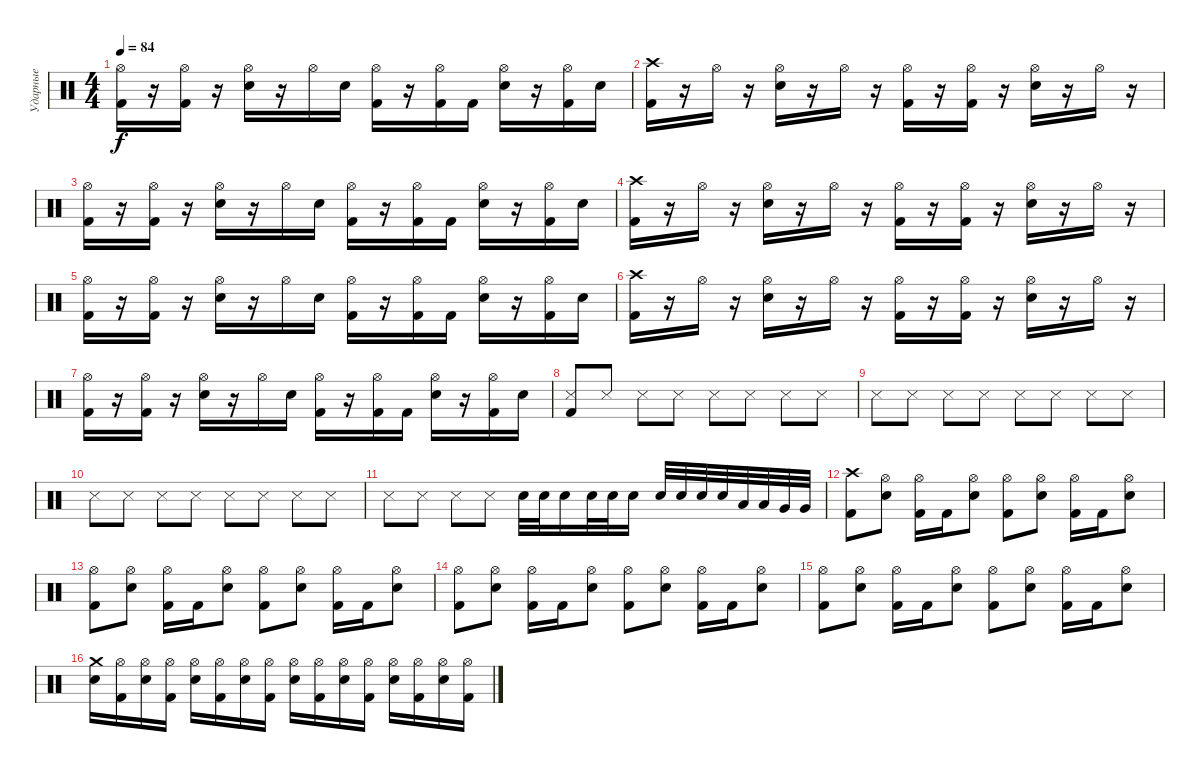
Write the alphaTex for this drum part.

\track ("Ударные" "Ударные") {instrument percussion}
\staff {score}
\articulation defaults
\ts (4 4)
\tempo 84
\clef neutral
\ks c
("Hi-Hat (open)" "Kick (hit) 2").16{dy f} r.16 ("Hi-Hat (open)" "Kick (hit) 2").16 r.16 ("Hi-Hat (open)" "Snare (hit) 2").16 r.16 "Hi-Hat (open)".16 "Snare (hit) 2".16 ("Hi-Hat (open)" "Kick (hit) 2").16 r.16 ("Hi-Hat (open)" "Kick (hit) 2").16 "Kick (hit) 2".16 ("Hi-Hat (open)" "Snare (hit) 2").16 r.16 ("Hi-Hat (open)" "Kick (hit) 2").16 "Snare (hit) 2".16 |
("Crash high (hit)" "Kick (hit) 2").16 r.16 "Hi-Hat (open)".16 r.16 ("Hi-Hat (open)" "Snare (hit) 2").16 r.16 "Hi-Hat (open)".16 r.16 ("Hi-Hat (open)" "Kick (hit) 2").16 r.16 ("Hi-Hat (open)" "Kick (hit) 2").16 r.16 ("Hi-Hat (open)" "Snare (hit) 2").16 r.16 "Hi-Hat (open)".16 r.16 |
("Hi-Hat (open)" "Kick (hit) 2").16 r.16 ("Hi-Hat (open)" "Kick (hit) 2").16 r.16 ("Hi-Hat (open)" "Snare (hit) 2").16 r.16 "Hi-Hat (open)".16 "Snare (hit) 2".16 ("Hi-Hat (open)" "Kick (hit) 2").16 r.16 ("Hi-Hat (open)" "Kick (hit) 2").16 "Kick (hit) 2".16 ("Hi-Hat (open)" "Snare (hit) 2").16 r.16 ("Hi-Hat (open)" "Kick (hit) 2").16 "Snare (hit) 2".16 |
("Crash high (hit)" "Kick (hit) 2").16 r.16 "Hi-Hat (open)".16 r.16 ("Hi-Hat (open)" "Snare (hit) 2").16 r.16 "Hi-Hat (open)".16 r.16 ("Hi-Hat (open)" "Kick (hit) 2").16 r.16 ("Hi-Hat (open)" "Kick (hit) 2").16 r.16 ("Hi-Hat (open)" "Snare (hit) 2").16 r.16 "Hi-Hat (open)".16 r.16 |
("Hi-Hat (open)" "Kick (hit) 2").16 r.16 ("Hi-Hat (open)" "Kick (hit) 2").16 r.16 ("Hi-Hat (open)" "Snare (hit) 2").16 r.16 "Hi-Hat (open)".16 "Snare (hit) 2".16 ("Hi-Hat (open)" "Kick (hit) 2").16 r.16 ("Hi-Hat (open)" "Kick (hit) 2").16 "Kick (hit) 2".16 ("Hi-Hat (open)" "Snare (hit) 2").16 r.16 ("Hi-Hat (open)" "Kick (hit) 2").16 "Snare (hit) 2".16 |
("Crash high (hit)" "Kick (hit) 2").16 r.16 "Hi-Hat (open)".16 r.16 ("Hi-Hat (open)" "Snare (hit) 2").16 r.16 "Hi-Hat (open)".16 r.16 ("Hi-Hat (open)" "Kick (hit) 2").16 r.16 ("Hi-Hat (open)" "Kick (hit) 2").16 r.16 ("Hi-Hat (open)" "Snare (hit) 2").16 r.16 "Hi-Hat (open)".16 r.16 |
("Hi-Hat (open)" "Kick (hit) 2").16 r.16 ("Hi-Hat (open)" "Kick (hit) 2").16 r.16 ("Hi-Hat (open)" "Snare (hit) 2").16 r.16 "Hi-Hat (open)".16 "Snare (hit) 2".16 ("Hi-Hat (open)" "Kick (hit) 2").16 r.16 ("Hi-Hat (open)" "Kick (hit) 2").16 "Kick (hit) 2".16 ("Hi-Hat (open)" "Snare (hit) 2").16 r.16 ("Hi-Hat (open)" "Kick (hit) 2").16 "Snare (hit) 2".16 |
("Kick (hit) 2" "Snare (side stick) 3").8 "Snare (side stick) 3".8 "Snare (side stick) 3".8 "Snare (side stick) 3".8 "Snare (side stick) 3".8 "Snare (side stick) 3".8 "Snare (side stick) 3".8 "Snare (side stick) 3".8 |
"Snare (side stick) 3".8 "Snare (side stick) 3".8 "Snare (side stick) 3".8 "Snare (side stick) 3".8 "Snare (side stick) 3".8 "Snare (side stick) 3".8 "Snare (side stick) 3".8 "Snare (side stick) 3".8 |
"Snare (side stick) 3".8 "Snare (side stick) 3".8 "Snare (side stick) 3".8 "Snare (side stick) 3".8 "Snare (side stick) 3".8 "Snare (side stick) 3".8 "Snare (side stick) 3".8 "Snare (side stick) 3".8 |
"Snare (side stick) 3".8 "Snare (side stick) 3".8 "Snare (side stick) 3".8 "Snare (side stick) 3".8 "Snare (hit) 2".32 "Snare (hit) 2".32 "Snare (hit) 2".16 "Snare (hit) 2".32 "Snare (hit) 2".32 "Snare (hit) 2".16 "Snare (hit) 2".32 "Snare (hit) 2".32 "Snare (hit) 2".32 "Snare (hit) 2".32 "Low Tom (hit)".32 "Low Tom (hit)".32 "Very Low Tom (hit)".32 "Very Low Tom (hit)".32 |
("Crash high (hit)" "Kick (hit) 2").8 ("Hi-Hat (open)" "Snare (hit) 2").8 ("Hi-Hat (open)" "Kick (hit) 2").16 "Kick (hit) 2".16 ("Hi-Hat (open)" "Snare (hit) 2").8 ("Hi-Hat (open)" "Kick (hit) 2").8 ("Hi-Hat (open)" "Snare (hit) 2").8 ("Hi-Hat (open)" "Kick (hit) 2").16 "Kick (hit) 2".16 ("Hi-Hat (open)" "Snare (hit) 2").8 |
("Hi-Hat (open)" "Kick (hit) 2").8 ("Hi-Hat (open)" "Snare (hit) 2").8 ("Hi-Hat (open)" "Kick (hit) 2").16 "Kick (hit) 2".16 ("Hi-Hat (open)" "Snare (hit) 2").8 ("Hi-Hat (open)" "Kick (hit) 2").8 ("Hi-Hat (open)" "Snare (hit) 2").8 ("Hi-Hat (open)" "Kick (hit) 2").16 "Kick (hit) 2".16 ("Hi-Hat (open)" "Snare (hit) 2").8 |
("Hi-Hat (open)" "Kick (hit) 2").8 ("Hi-Hat (open)" "Snare (hit) 2").8 ("Hi-Hat (open)" "Kick (hit) 2").16 "Kick (hit) 2".16 ("Hi-Hat (open)" "Snare (hit) 2").8 ("Hi-Hat (open)" "Kick (hit) 2").8 ("Hi-Hat (open)" "Snare (hit) 2").8 ("Hi-Hat (open)" "Kick (hit) 2").16 "Kick (hit) 2".16 ("Hi-Hat (open)" "Snare (hit) 2").8 |
("Hi-Hat (open)" "Kick (hit) 2").8 ("Hi-Hat (open)" "Snare (hit) 2").8 ("Hi-Hat (open)" "Kick (hit) 2").16 "Kick (hit) 2".16 ("Hi-Hat (open)" "Snare (hit) 2").8 ("Hi-Hat (open)" "Kick (hit) 2").8 ("Hi-Hat (open)" "Snare (hit) 2").8 ("Hi-Hat (open)" "Kick (hit) 2").16 "Kick (hit) 2".16 ("Hi-Hat (open)" "Snare (hit) 2").8 |
("Crash medium (hit)" "Snare (hit) 2").16 ("Hi-Hat (open)" "Kick (hit) 2").16 ("Hi-Hat (open)" "Snare (hit) 2").16 ("Hi-Hat (open)" "Kick (hit) 2").16 ("Hi-Hat (open)" "Snare (hit) 2").16 ("Hi-Hat (open)" "Kick (hit) 2").16 ("Hi-Hat (open)" "Snare (hit) 2").16 ("Hi-Hat (open)" "Kick (hit) 2").16 ("Hi-Hat (open)" "Snare (hit) 2").16 ("Hi-Hat (open)" "Kick (hit) 2").16 ("Hi-Hat (open)" "Snare (hit) 2").16 ("Hi-Hat (open)" "Kick (hit) 2").16 ("Hi-Hat (open)" "Snare (hit) 2").16 ("Hi-Hat (open)" "Kick (hit) 2").16 ("Hi-Hat (open)" "Snare (hit) 2").16 ("Hi-Hat (open)" "Kick (hit) 2").16
